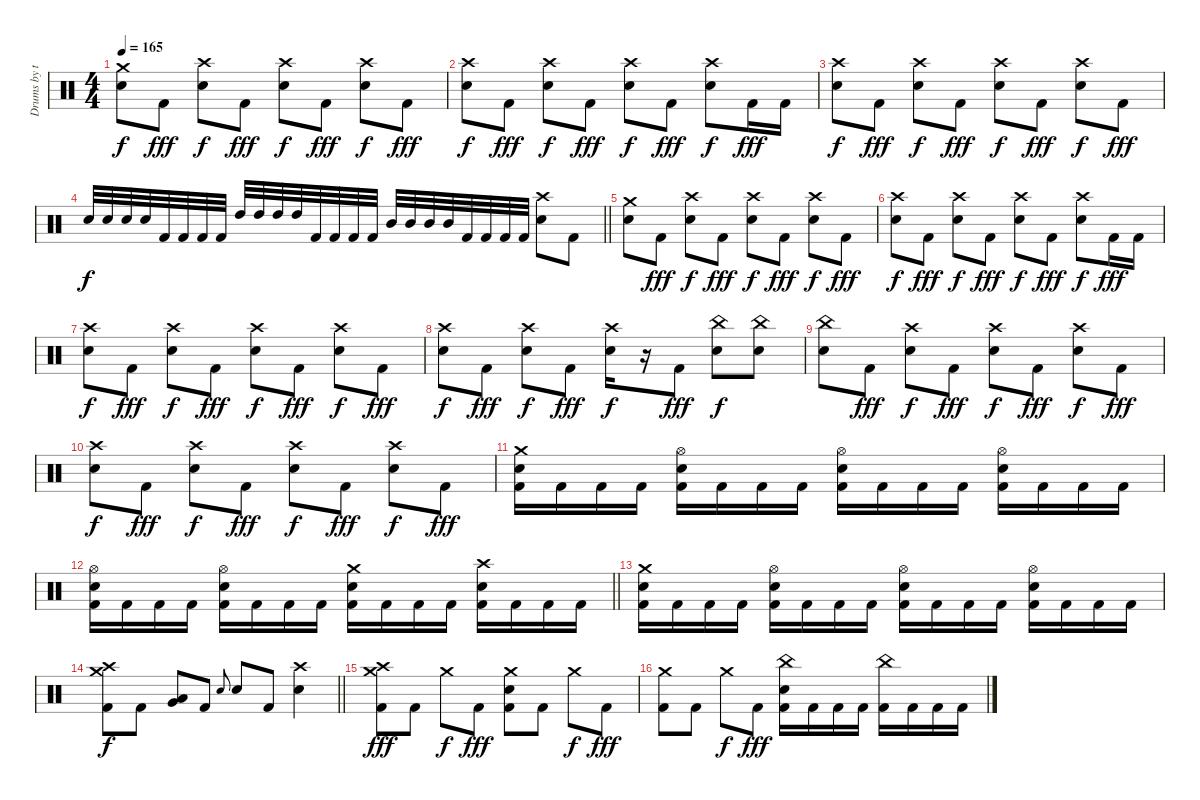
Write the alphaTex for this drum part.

\track ("Drums by terryn0" "Drums by t") {instrument percussion}
\staff {score}
\articulation defaults
\ts (4 4)
\tempo 165
\clef neutral
\ks c
("Crash medium (hit)" "Electric Snare (hit)").8{dy f} "Kick (hit) 2".8{dy fff} ("Crash high (hit)" "Electric Snare (hit)").8{dy f} "Kick (hit) 2".8{dy fff} ("Crash high (hit)" "Electric Snare (hit)").8{dy f} "Kick (hit) 2".8{dy fff} ("Crash high (hit)" "Electric Snare (hit)").8{dy f} "Kick (hit) 2".8{dy fff} |
("Crash high (hit)" "Electric Snare (hit)").8{dy f} "Kick (hit) 2".8{dy fff} ("Crash high (hit)" "Electric Snare (hit)").8{dy f} "Kick (hit) 2".8{dy fff} ("Crash high (hit)" "Electric Snare (hit)").8{dy f} "Kick (hit) 2".8{dy fff} ("Crash high (hit)" "Electric Snare (hit)").8{dy f} "Kick (hit) 2".16{dy fff} "Kick (hit) 2".16 |
("Crash high (hit)" "Electric Snare (hit)").8{dy f} "Kick (hit) 2".8{dy fff} ("Crash high (hit)" "Electric Snare (hit)").8{dy f} "Kick (hit) 2".8{dy fff} ("Crash high (hit)" "Electric Snare (hit)").8{dy f} "Kick (hit) 2".8{dy fff} ("Crash high (hit)" "Electric Snare (hit)").8{dy f} "Kick (hit) 2".8{dy fff} |
\barLineRight lightlight "Electric Snare (hit)".32{dy f} "Electric Snare (hit)".32 "Electric Snare (hit)".32 "Electric Snare (hit)".32 "Kick (hit) 2".32 "Kick (hit) 2".32 "Kick (hit) 2".32 "Kick (hit) 2".32 "High Tom (hit)".32 "High Tom (hit)".32 "High Tom (hit)".32 "High Tom (hit)".32 "Kick (hit) 2".32 "Kick (hit) 2".32 "Kick (hit) 2".32 "Kick (hit) 2".32 "Mid Tom (hit)".32 "Mid Tom (hit)".32 "Mid Tom (hit)".32 "Mid Tom (hit)".32 "Kick (hit) 2".32 "Kick (hit) 2".32 "Kick (hit) 2".32 "Kick (hit) 2".32
("Crash high (hit)" "Electric Snare (hit)").8 "Kick (hit) 2".8 |
("Crash medium (hit)" "Electric Snare (hit)").8 "Kick (hit) 2".8{dy fff} ("Crash high (hit)" "Electric Snare (hit)").8{dy f} "Kick (hit) 2".8{dy fff} ("Crash high (hit)" "Electric Snare (hit)").8{dy f} "Kick (hit) 2".8{dy fff} ("Crash high (hit)" "Electric Snare (hit)").8{dy f} "Kick (hit) 2".8{dy fff} |
("Crash high (hit)" "Electric Snare (hit)").8{dy f} "Kick (hit) 2".8{dy fff} ("Crash high (hit)" "Electric Snare (hit)").8{dy f} "Kick (hit) 2".8{dy fff} ("Crash high (hit)" "Electric Snare (hit)").8{dy f} "Kick (hit) 2".8{dy fff} ("Crash high (hit)" "Electric Snare (hit)").8{dy f} "Kick (hit) 2".16{dy fff} "Kick (hit) 2".16 |
("Crash high (hit)" "Electric Snare (hit)").8{dy f} "Kick (hit) 2".8{dy fff} ("Crash high (hit)" "Electric Snare (hit)").8{dy f} "Kick (hit) 2".8{dy fff} ("Crash high (hit)" "Electric Snare (hit)").8{dy f} "Kick (hit) 2".8{dy fff} ("Crash high (hit)" "Electric Snare (hit)").8{dy f} "Kick (hit) 2".8{dy fff} |
("Crash high (hit)" "Electric Snare (hit)").8{dy f} "Kick (hit) 2".8{dy fff} ("Crash high (hit)" "Electric Snare (hit)").8{dy f} "Kick (hit) 2".8{dy fff} ("Crash high (hit)" "Electric Snare (hit)").16{dy f} r.16 "Kick (hit) 2".8{dy fff} ("China (hit)" "Electric Snare (hit)").8{dy f} ("China (hit)" "Electric Snare (hit)").8 |
("China (hit)" "Electric Snare (hit)").8 "Kick (hit) 2".8{dy fff} ("Crash high (hit)" "Electric Snare (hit)").8{dy f} "Kick (hit) 2".8{dy fff} ("Crash high (hit)" "Electric Snare (hit)").8{dy f} "Kick (hit) 2".8{dy fff} ("Crash high (hit)" "Electric Snare (hit)").8{dy f} "Kick (hit) 2".8{dy fff} |
("Crash high (hit)" "Electric Snare (hit)").8{dy f} "Kick (hit) 2".8{dy fff} ("Crash high (hit)" "Electric Snare (hit)").8{dy f} "Kick (hit) 2".8{dy fff} ("Crash high (hit)" "Electric Snare (hit)").8{dy f} "Kick (hit) 2".8{dy fff} ("Crash high (hit)" "Electric Snare (hit)").8{dy f} "Kick (hit) 2".8{dy fff} |
("Crash medium (hit)" "Electric Snare (hit)" "Kick (hit) 2").16 "Kick (hit) 2".16 "Kick (hit) 2".16 "Kick (hit) 2".16 ("Hi-Hat (open)" "Electric Snare (hit)" "Kick (hit) 2").16 "Kick (hit) 2".16 "Kick (hit) 2".16 "Kick (hit) 2".16 ("Hi-Hat (open)" "Electric Snare (hit)" "Kick (hit) 2").16 "Kick (hit) 2".16 "Kick (hit) 2".16 "Kick (hit) 2".16 ("Hi-Hat (open)" "Electric Snare (hit)" "Kick (hit) 2").16 "Kick (hit) 2".16 "Kick (hit) 2".16 "Kick (hit) 2".16 |
\barLineRight lightlight
("Hi-Hat (open)" "Electric Snare (hit)" "Kick (hit) 2").16 "Kick (hit) 2".16 "Kick (hit) 2".16 "Kick (hit) 2".16 ("Hi-Hat (open)" "Electric Snare (hit)" "Kick (hit) 2").16 "Kick (hit) 2".16 "Kick (hit) 2".16 "Kick (hit) 2".16 ("Crash medium (hit)" "Electric Snare (hit)" "Kick (hit) 2").16 "Kick (hit) 2".16 "Kick (hit) 2".16 "Kick (hit) 2".16 ("Crash high (hit)" "Electric Snare (hit)" "Kick (hit) 2").16 "Kick (hit) 2".16 "Kick (hit) 2".16 "Kick (hit) 2".16 |
("Crash medium (hit)" "Electric Snare (hit)" "Kick (hit) 2").16 "Kick (hit) 2".16 "Kick (hit) 2".16 "Kick (hit) 2".16 ("Hi-Hat (open)" "Electric Snare (hit)" "Kick (hit) 2").16 "Kick (hit) 2".16 "Kick (hit) 2".16 "Kick (hit) 2".16 ("Hi-Hat (open)" "Electric Snare (hit)" "Kick (hit) 2").16 "Kick (hit) 2".16 "Kick (hit) 2".16 "Kick (hit) 2".16 ("Hi-Hat (open)" "Electric Snare (hit)" "Kick (hit) 2").16 "Kick (hit) 2".16 "Kick (hit) 2".16 "Kick (hit) 2".16 |
\barLineRight lightlight
("Crash medium (hit)" "Crash high (hit)" "Kick (hit) 2").8{dy f} "Kick (hit) 2".8 ("Low Tom (hit)" "Very Low Tom (hit)").8 "Kick (hit) 2".8 "Electric Snare (hit)".8{gr onbeat} "Electric Snare (hit)".8 "Kick (hit) 2".8 ("Crash high (hit)" "Electric Snare (hit)").4 |
("Crash medium (hit)" "Crash high (hit)" "Kick (hit) 2").8{dy fff} "Kick (hit) 2".8 "Crash medium (hit)".8{dy f} "Kick (hit) 2".8{dy fff} ("Crash medium (hit)" "Electric Snare (hit)" "Kick (hit) 2").8 "Kick (hit) 2".8 "Crash medium (hit)".8{dy f} "Kick (hit) 2".8{dy fff} |
("Crash medium (hit)" "Kick (hit) 2").8 "Kick (hit) 2".8 "Crash medium (hit)".8{dy f} "Kick (hit) 2".8{dy fff} ("China (hit)" "Electric Snare (hit)" "Kick (hit) 2").16 "Kick (hit) 2".16 "Kick (hit) 2".16 "Kick (hit) 2".16 ("China (hit)" "Kick (hit) 2").16 "Kick (hit) 2".16 "Kick (hit) 2".16 "Kick (hit) 2".16
